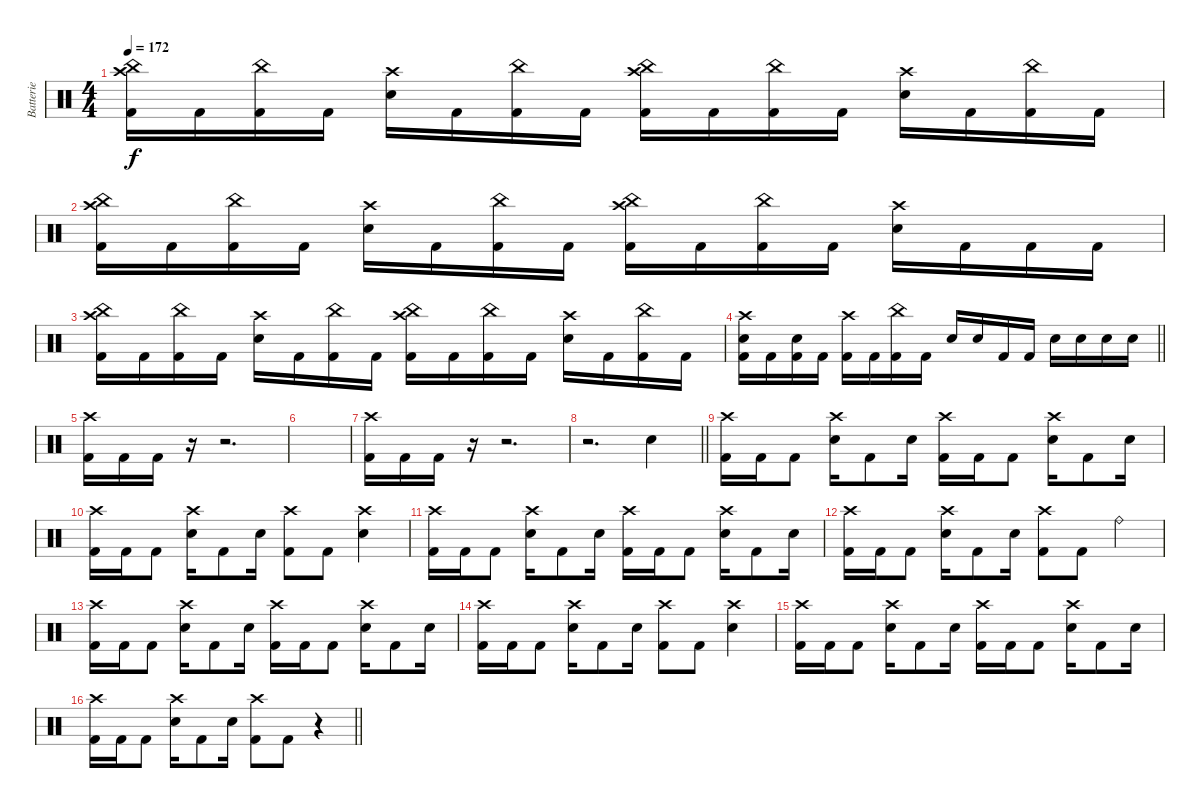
\track ("Batterie" "Batterie") {instrument percussion}
\staff {score}
\articulation defaults
\ts (4 4)
\tempo 172
\clef neutral
\ks c
("Crash high (hit)" "China (hit)" "Kick (hit) 2").16{dy f} "Kick (hit) 2".16 ("China (hit)" "Kick (hit) 2").16 "Kick (hit) 2".16 ("Crash high (hit)" "Electric Snare (hit)").16 "Kick (hit) 2".16 ("China (hit)" "Kick (hit) 2").16 "Kick (hit) 2".16 ("Crash high (hit)" "China (hit)" "Kick (hit) 2").16 "Kick (hit) 2".16 ("China (hit)" "Kick (hit) 2").16 "Kick (hit) 2".16 ("Crash high (hit)" "Electric Snare (hit)").16 "Kick (hit) 2".16 ("China (hit)" "Kick (hit) 2").16 "Kick (hit) 2".16 |
("Crash high (hit)" "China (hit)" "Kick (hit) 2").16 "Kick (hit) 2".16 ("China (hit)" "Kick (hit) 2").16 "Kick (hit) 2".16 ("Crash high (hit)" "Electric Snare (hit)").16 "Kick (hit) 2".16 ("China (hit)" "Kick (hit) 2").16 "Kick (hit) 2".16 ("Crash high (hit)" "China (hit)" "Kick (hit) 2").16 "Kick (hit) 2".16 ("China (hit)" "Kick (hit) 2").16 "Kick (hit) 2".16 ("Crash high (hit)" "Electric Snare (hit)").16 "Kick (hit) 2".16 "Kick (hit) 2".16 "Kick (hit) 2".16 |
("Crash high (hit)" "China (hit)" "Kick (hit) 2").16 "Kick (hit) 2".16 ("China (hit)" "Kick (hit) 2").16 "Kick (hit) 2".16 ("Crash high (hit)" "Electric Snare (hit)").16 "Kick (hit) 2".16 ("China (hit)" "Kick (hit) 2").16 "Kick (hit) 2".16 ("Crash high (hit)" "China (hit)" "Kick (hit) 2").16 "Kick (hit) 2".16 ("China (hit)" "Kick (hit) 2").16 "Kick (hit) 2".16 ("Crash high (hit)" "Electric Snare (hit)").16 "Kick (hit) 2".16 ("China (hit)" "Kick (hit) 2").16 "Kick (hit) 2".16 |
\barLineRight lightlight
("Crash high (hit)" "Electric Snare (hit)" "Kick (hit) 2").16 "Kick (hit) 2".16 ("Electric Snare (hit)" "Kick (hit) 2").16 "Kick (hit) 2".16 ("Crash high (hit)" "Kick (hit) 2").16 "Kick (hit) 2".16 ("China (hit)" "Kick (hit) 2").16 "Kick (hit) 2".16 "Electric Snare (hit)".16 "Electric Snare (hit)".16 "Kick (hit) 2".16 "Kick (hit) 2".16 "Electric Snare (hit)".16 "Electric Snare (hit)".16 "Electric Snare (hit)".16 "Electric Snare (hit)".16 |
("Crash high (hit)" "Kick (hit) 2").16 "Kick (hit) 2".16 "Kick (hit) 2".16 r.16 r.2{d} |
|
("Crash high (hit)" "Kick (hit) 2").16 "Kick (hit) 2".16 "Kick (hit) 2".16 r.16 r.2{d} |
\barLineRight lightlight
r.2{d} "Electric Snare (hit)".4 |
("Crash high (hit)" "Kick (hit) 2").16 "Kick (hit) 2".16 "Kick (hit) 2".8 ("Crash high (hit)" "Electric Snare (hit)").16 "Kick (hit) 2".8 "Electric Snare (hit)".16 ("Crash high (hit)" "Kick (hit) 2").16 "Kick (hit) 2".16 "Kick (hit) 2".8 ("Crash high (hit)" "Electric Snare (hit)").16 "Kick (hit) 2".8 "Electric Snare (hit)".16 |
("Crash high (hit)" "Kick (hit) 2").16 "Kick (hit) 2".16 "Kick (hit) 2".8 ("Crash high (hit)" "Electric Snare (hit)").16 "Kick (hit) 2".8 "Electric Snare (hit)".16 ("Crash high (hit)" "Kick (hit) 2").8 "Kick (hit) 2".8 ("Crash high (hit)" "Electric Snare (hit)").4 |
("Crash high (hit)" "Kick (hit) 2").16 "Kick (hit) 2".16 "Kick (hit) 2".8 ("Crash high (hit)" "Electric Snare (hit)").16 "Kick (hit) 2".8 "Electric Snare (hit)".16 ("Crash high (hit)" "Kick (hit) 2").16 "Kick (hit) 2".16 "Kick (hit) 2".8 ("Crash high (hit)" "Electric Snare (hit)").16 "Kick (hit) 2".8 "Electric Snare (hit)".16 |
("Crash high (hit)" "Kick (hit) 2").16 "Kick (hit) 2".16 "Kick (hit) 2".8 ("Crash high (hit)" "Electric Snare (hit)").16 "Kick (hit) 2".8 "Electric Snare (hit)".16 ("Crash high (hit)" "Kick (hit) 2").8 "Kick (hit) 2".8 "Ride (bell)".4 |
("Crash high (hit)" "Kick (hit) 2").16 "Kick (hit) 2".16 "Kick (hit) 2".8 ("Crash high (hit)" "Electric Snare (hit)").16 "Kick (hit) 2".8 "Electric Snare (hit)".16 ("Crash high (hit)" "Kick (hit) 2").16 "Kick (hit) 2".16 "Kick (hit) 2".8 ("Crash high (hit)" "Electric Snare (hit)").16 "Kick (hit) 2".8 "Electric Snare (hit)".16 |
("Crash high (hit)" "Kick (hit) 2").16 "Kick (hit) 2".16 "Kick (hit) 2".8 ("Crash high (hit)" "Electric Snare (hit)").16 "Kick (hit) 2".8 "Electric Snare (hit)".16 ("Crash high (hit)" "Kick (hit) 2").8 "Kick (hit) 2".8 ("Crash high (hit)" "Electric Snare (hit)").4 |
("Crash high (hit)" "Kick (hit) 2").16 "Kick (hit) 2".16 "Kick (hit) 2".8 ("Crash high (hit)" "Electric Snare (hit)").16 "Kick (hit) 2".8 "Electric Snare (hit)".16 ("Crash high (hit)" "Kick (hit) 2").16 "Kick (hit) 2".16 "Kick (hit) 2".8 ("Crash high (hit)" "Electric Snare (hit)").16 "Kick (hit) 2".8 "Electric Snare (hit)".16 |
\barLineRight lightlight
("Crash high (hit)" "Kick (hit) 2").16 "Kick (hit) 2".16 "Kick (hit) 2".8 ("Crash high (hit)" "Electric Snare (hit)").16 "Kick (hit) 2".8 "Electric Snare (hit)".16 ("Crash high (hit)" "Kick (hit) 2").8 "Kick (hit) 2".8 r.4
